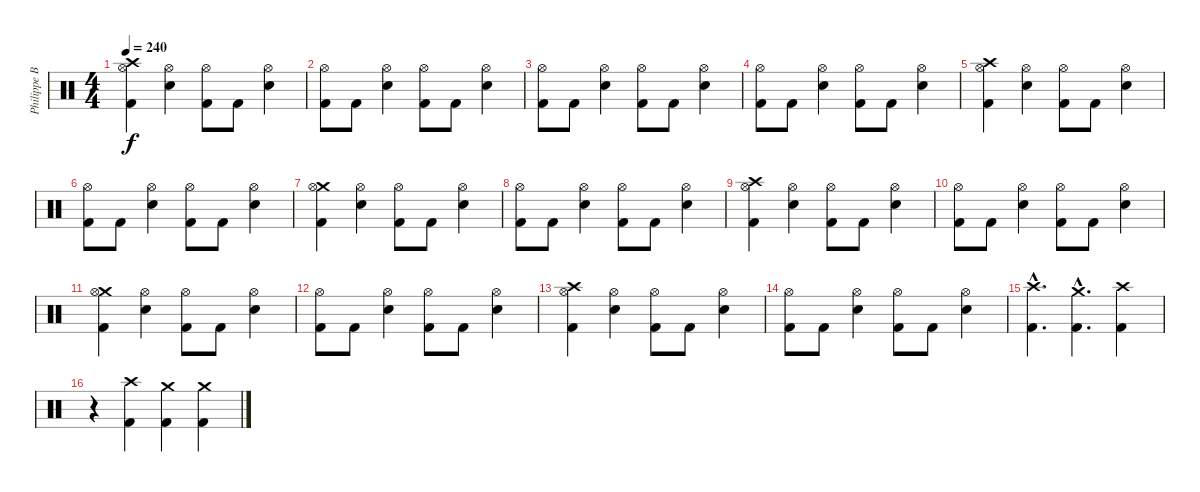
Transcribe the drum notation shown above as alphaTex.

\track ("Philippe Borda" "Philippe B") {instrument percussion}
\staff {score}
\articulation defaults
\ts (4 4)
\tempo 240
\clef neutral
\ks c
("Crash high (hit)" "Hi-Hat (open)" "Kick (hit) 2").4{dy f} ("Hi-Hat (open)" "Snare (hit) 2").4 ("Hi-Hat (open)" "Kick (hit) 2").8 "Kick (hit) 2".8 ("Hi-Hat (open)" "Snare (hit) 2").4 |
("Hi-Hat (open)" "Kick (hit) 2").8 "Kick (hit) 2".8 ("Hi-Hat (open)" "Snare (hit) 2").4 ("Hi-Hat (open)" "Kick (hit) 2").8 "Kick (hit) 2".8 ("Hi-Hat (open)" "Snare (hit) 2").4 |
("Hi-Hat (open)" "Kick (hit) 2").8 "Kick (hit) 2".8 ("Hi-Hat (open)" "Snare (hit) 2").4 ("Hi-Hat (open)" "Kick (hit) 2").8 "Kick (hit) 2".8 ("Hi-Hat (open)" "Snare (hit) 2").4 |
("Hi-Hat (open)" "Kick (hit) 2").8 "Kick (hit) 2".8 ("Hi-Hat (open)" "Snare (hit) 2").4 ("Hi-Hat (open)" "Kick (hit) 2").8 "Kick (hit) 2".8 ("Hi-Hat (open)" "Snare (hit) 2").4 |
("Crash high (hit)" "Hi-Hat (open)" "Kick (hit) 2").4 ("Hi-Hat (open)" "Snare (hit) 2").4 ("Hi-Hat (open)" "Kick (hit) 2").8 "Kick (hit) 2".8 ("Hi-Hat (open)" "Snare (hit) 2").4 |
("Hi-Hat (open)" "Kick (hit) 2").8 "Kick (hit) 2".8 ("Hi-Hat (open)" "Snare (hit) 2").4 ("Hi-Hat (open)" "Kick (hit) 2").8 "Kick (hit) 2".8 ("Hi-Hat (open)" "Snare (hit) 2").4 |
("Crash medium (hit)" "Hi-Hat (open)" "Kick (hit) 2").4 ("Hi-Hat (open)" "Snare (hit) 2").4 ("Hi-Hat (open)" "Kick (hit) 2").8 "Kick (hit) 2".8 ("Hi-Hat (open)" "Snare (hit) 2").4 |
("Hi-Hat (open)" "Kick (hit) 2").8 "Kick (hit) 2".8 ("Hi-Hat (open)" "Snare (hit) 2").4 ("Hi-Hat (open)" "Kick (hit) 2").8 "Kick (hit) 2".8 ("Hi-Hat (open)" "Snare (hit) 2").4 |
("Crash high (hit)" "Hi-Hat (open)" "Kick (hit) 2").4 ("Hi-Hat (open)" "Snare (hit) 2").4 ("Hi-Hat (open)" "Kick (hit) 2").8 "Kick (hit) 2".8 ("Hi-Hat (open)" "Snare (hit) 2").4 |
("Hi-Hat (open)" "Kick (hit) 2").8 "Kick (hit) 2".8 ("Hi-Hat (open)" "Snare (hit) 2").4 ("Hi-Hat (open)" "Kick (hit) 2").8 "Kick (hit) 2".8 ("Hi-Hat (open)" "Snare (hit) 2").4 |
("Crash medium (hit)" "Hi-Hat (open)" "Kick (hit) 2").4 ("Hi-Hat (open)" "Snare (hit) 2").4 ("Hi-Hat (open)" "Kick (hit) 2").8 "Kick (hit) 2".8 ("Hi-Hat (open)" "Snare (hit) 2").4 |
("Hi-Hat (open)" "Kick (hit) 2").8 "Kick (hit) 2".8 ("Hi-Hat (open)" "Snare (hit) 2").4 ("Hi-Hat (open)" "Kick (hit) 2").8 "Kick (hit) 2".8 ("Hi-Hat (open)" "Snare (hit) 2").4 |
("Crash high (hit)" "Hi-Hat (open)" "Kick (hit) 2").4 ("Hi-Hat (open)" "Snare (hit) 2").4 ("Hi-Hat (open)" "Kick (hit) 2").8 "Kick (hit) 2".8 ("Hi-Hat (open)" "Snare (hit) 2").4 |
("Hi-Hat (open)" "Kick (hit) 2").8 "Kick (hit) 2".8 ("Hi-Hat (open)" "Snare (hit) 2").4 ("Hi-Hat (open)" "Kick (hit) 2").8 "Kick (hit) 2".8 ("Hi-Hat (open)" "Snare (hit) 2").4 |
("Crash high (hit)"{hac} "Kick (hit) 2"{hac}).4{d} ("Crash medium (hit)"{hac} "Kick (hit) 2"{hac}).4{d} ("Crash high (hit)" "Kick (hit) 2").4 |
r.4 ("Crash high (hit)" "Kick (hit) 2").4 ("Crash medium (hit)" "Kick (hit) 2").4 ("Crash medium (hit)" "Kick (hit) 2").4
